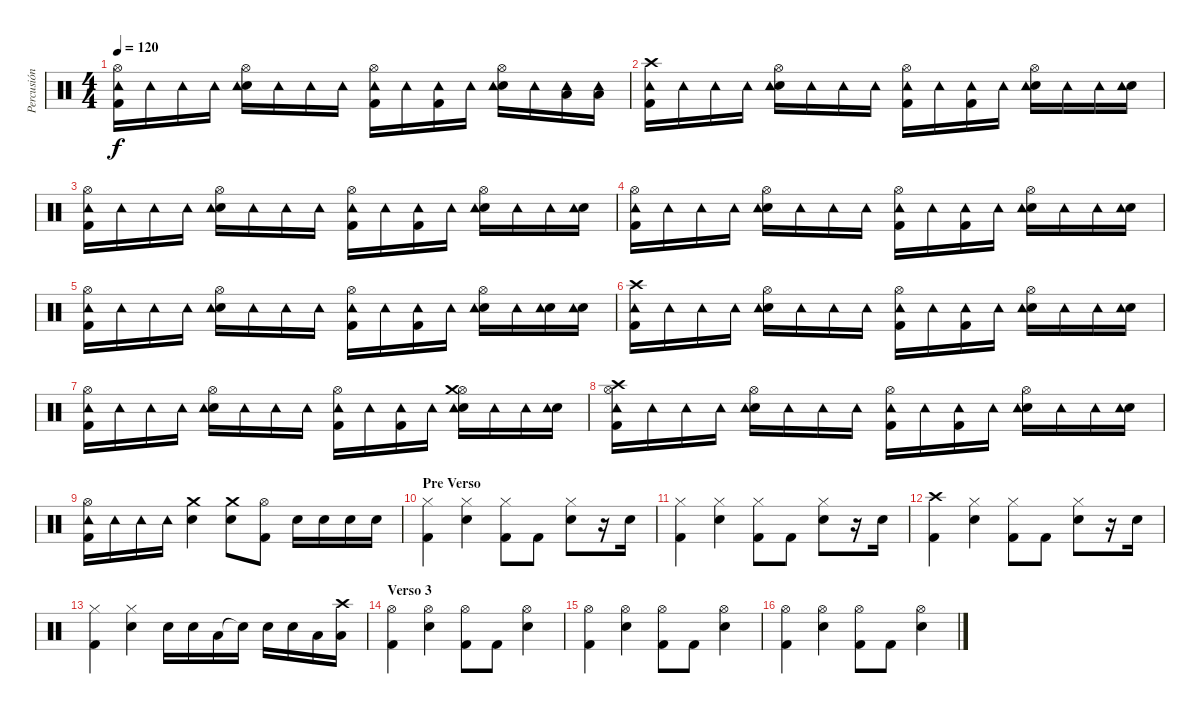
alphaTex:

\track ("Percusión" "Percusión") {instrument percussion}
\staff {score}
\articulation defaults
\ts (4 4)
\tempo 120
\clef neutral
\ks c
("Hi-Hat (open)" "Kick (hit) 2" "Tambourine (hit)").16{dy f} "Tambourine (hit)".16 "Tambourine (hit)".16 "Tambourine (hit)".16 ("Hi-Hat (open)" "Electric Snare (hit)" "Tambourine (hit)").16 "Tambourine (hit)".16 "Tambourine (hit)".16 "Tambourine (hit)".16 ("Hi-Hat (open)" "Kick (hit) 2" "Tambourine (hit)").16 "Tambourine (hit)".16 ("Kick (hit) 2" "Tambourine (hit)").16 "Tambourine (hit)".16 ("Hi-Hat (open)" "Electric Snare (hit)" "Tambourine (hit)").16 "Tambourine (hit)".16 ("Low Tom (hit)" "Tambourine (hit)").16 ("Low Tom (hit)" "Tambourine (hit)").16 |
("Crash high (hit)" "Kick (hit) 2" "Tambourine (hit)").16 "Tambourine (hit)".16 "Tambourine (hit)".16 "Tambourine (hit)".16 ("Hi-Hat (open)" "Electric Snare (hit)" "Tambourine (hit)").16 "Tambourine (hit)".16 "Tambourine (hit)".16 "Tambourine (hit)".16 ("Hi-Hat (open)" "Kick (hit) 2" "Tambourine (hit)").16 "Tambourine (hit)".16 ("Kick (hit) 2" "Tambourine (hit)").16 "Tambourine (hit)".16 ("Hi-Hat (open)" "Electric Snare (hit)" "Tambourine (hit)").16 "Tambourine (hit)".16 "Tambourine (hit)".16 ("Electric Snare (hit)" "Tambourine (hit)").16 |
("Hi-Hat (open)" "Kick (hit) 2" "Tambourine (hit)").16 "Tambourine (hit)".16 "Tambourine (hit)".16 "Tambourine (hit)".16 ("Hi-Hat (open)" "Electric Snare (hit)" "Tambourine (hit)").16 "Tambourine (hit)".16 "Tambourine (hit)".16 "Tambourine (hit)".16 ("Hi-Hat (open)" "Kick (hit) 2" "Tambourine (hit)").16 "Tambourine (hit)".16 ("Kick (hit) 2" "Tambourine (hit)").16 "Tambourine (hit)".16 ("Hi-Hat (open)" "Electric Snare (hit)" "Tambourine (hit)").16 "Tambourine (hit)".16 "Tambourine (hit)".16 ("Electric Snare (hit)" "Tambourine (hit)").16 |
("Hi-Hat (open)" "Kick (hit) 2" "Tambourine (hit)").16 "Tambourine (hit)".16 "Tambourine (hit)".16 "Tambourine (hit)".16 ("Hi-Hat (open)" "Electric Snare (hit)" "Tambourine (hit)").16 "Tambourine (hit)".16 "Tambourine (hit)".16 "Tambourine (hit)".16 ("Hi-Hat (open)" "Kick (hit) 2" "Tambourine (hit)").16 "Tambourine (hit)".16 ("Kick (hit) 2" "Tambourine (hit)").16 "Tambourine (hit)".16 ("Hi-Hat (open)" "Electric Snare (hit)" "Tambourine (hit)").16 "Tambourine (hit)".16 "Tambourine (hit)".16 ("Electric Snare (hit)" "Tambourine (hit)").16 |
("Hi-Hat (open)" "Kick (hit) 2" "Tambourine (hit)").16 "Tambourine (hit)".16 "Tambourine (hit)".16 "Tambourine (hit)".16 ("Hi-Hat (open)" "Electric Snare (hit)" "Tambourine (hit)").16 "Tambourine (hit)".16 "Tambourine (hit)".16 "Tambourine (hit)".16 ("Hi-Hat (open)" "Kick (hit) 2" "Tambourine (hit)").16 "Tambourine (hit)".16 ("Kick (hit) 2" "Tambourine (hit)").16 "Tambourine (hit)".16 ("Hi-Hat (open)" "Electric Snare (hit)" "Tambourine (hit)").16 "Tambourine (hit)".16 ("Electric Snare (hit)" "Tambourine (hit)").16 ("Electric Snare (hit)" "Tambourine (hit)").16 |
("Crash high (hit)" "Kick (hit) 2" "Tambourine (hit)").16 "Tambourine (hit)".16 "Tambourine (hit)".16 "Tambourine (hit)".16 ("Hi-Hat (open)" "Electric Snare (hit)" "Tambourine (hit)").16 "Tambourine (hit)".16 "Tambourine (hit)".16 "Tambourine (hit)".16 ("Hi-Hat (open)" "Kick (hit) 2" "Tambourine (hit)").16 "Tambourine (hit)".16 ("Kick (hit) 2" "Tambourine (hit)").16 "Tambourine (hit)".16 ("Hi-Hat (open)" "Electric Snare (hit)" "Tambourine (hit)").16 "Tambourine (hit)".16 "Tambourine (hit)".16 ("Electric Snare (hit)" "Tambourine (hit)").16 |
("Hi-Hat (open)" "Kick (hit) 2" "Tambourine (hit)").16 "Tambourine (hit)".16 "Tambourine (hit)".16 "Tambourine (hit)".16 ("Hi-Hat (open)" "Electric Snare (hit)" "Tambourine (hit)").16 "Tambourine (hit)".16 "Tambourine (hit)".16 "Tambourine (hit)".16 ("Hi-Hat (open)" "Kick (hit) 2" "Tambourine (hit)").16 "Tambourine (hit)".16 ("Kick (hit) 2" "Tambourine (hit)").16 "Tambourine (hit)".16 ("Hi-Hat (open)" "Crash medium (hit)" "Electric Snare (hit)" "Tambourine (hit)").16 "Tambourine (hit)".16 "Tambourine (hit)".16 ("Electric Snare (hit)" "Tambourine (hit)").16 |
("Hi-Hat (open)" "Crash high (hit)" "Kick (hit) 2" "Tambourine (hit)").16 "Tambourine (hit)".16 "Tambourine (hit)".16 "Tambourine (hit)".16 ("Hi-Hat (open)" "Electric Snare (hit)" "Tambourine (hit)").16 "Tambourine (hit)".16 "Tambourine (hit)".16 "Tambourine (hit)".16 ("Hi-Hat (open)" "Kick (hit) 2" "Tambourine (hit)").16 "Tambourine (hit)".16 ("Kick (hit) 2" "Tambourine (hit)").16 "Tambourine (hit)".16 ("Hi-Hat (open)" "Electric Snare (hit)" "Tambourine (hit)").16 "Tambourine (hit)".16 "Tambourine (hit)".16 ("Electric Snare (hit)" "Tambourine (hit)").16 |
("Hi-Hat (open)" "Kick (hit) 2" "Tambourine (hit)").16 "Tambourine (hit)".16 "Tambourine (hit)".16 "Tambourine (hit)".16 ("Crash medium (hit)" "Electric Snare (hit)").4 ("Crash medium (hit)" "Electric Snare (hit)").8 ("Hi-Hat (open)" "Kick (hit) 2").8 "Electric Snare (hit)".16 "Electric Snare (hit)".16 "Electric Snare (hit)".16 "Electric Snare (hit)".16 |
\section ("" "Pre Verso")
("Hi-Hat (closed)" "Kick (hit) 2").4 ("Hi-Hat (closed)" "Electric Snare (hit)").4 ("Hi-Hat (closed)" "Kick (hit) 2").8 "Kick (hit) 2".8 ("Hi-Hat (closed)" "Electric Snare (hit)").8 r.16 "Electric Snare (hit)".16 |
("Hi-Hat (closed)" "Kick (hit) 2").4 ("Hi-Hat (closed)" "Electric Snare (hit)").4 ("Hi-Hat (closed)" "Kick (hit) 2").8 "Kick (hit) 2".8 ("Hi-Hat (closed)" "Electric Snare (hit)").8 r.16 "Electric Snare (hit)".16 |
("Crash high (hit)" "Kick (hit) 2").4 ("Hi-Hat (closed)" "Electric Snare (hit)").4 ("Hi-Hat (closed)" "Kick (hit) 2").8 "Kick (hit) 2".8 ("Hi-Hat (closed)" "Electric Snare (hit)").8 r.16 "Electric Snare (hit)".16 |
("Hi-Hat (closed)" "Kick (hit) 2").4 ("Hi-Hat (closed)" "Electric Snare (hit)").4 "Electric Snare (hit)".16 "Electric Snare (hit)".16 "Low Tom (hit)".16 "Snare (hit)"{t}.16 "Electric Snare (hit)".16 "Electric Snare (hit)".16 "Low Tom (hit)".16 ("Crash high (hit)" "Low Tom (hit)").16 |
\section ("" "Verso 3")
("Hi-Hat (open)" "Kick (hit) 2").4 ("Hi-Hat (open)" "Electric Snare (hit)").4 ("Hi-Hat (open)" "Kick (hit) 2").8 "Kick (hit) 2".8 ("Hi-Hat (open)" "Electric Snare (hit)").4 |
("Hi-Hat (open)" "Kick (hit) 2").4 ("Hi-Hat (open)" "Electric Snare (hit)").4 ("Hi-Hat (open)" "Kick (hit) 2").8 "Kick (hit) 2".8 ("Hi-Hat (open)" "Electric Snare (hit)").4 |
("Hi-Hat (open)" "Kick (hit) 2").4 ("Hi-Hat (open)" "Electric Snare (hit)").4 ("Hi-Hat (open)" "Kick (hit) 2").8 "Kick (hit) 2".8 ("Hi-Hat (open)" "Electric Snare (hit)").4
